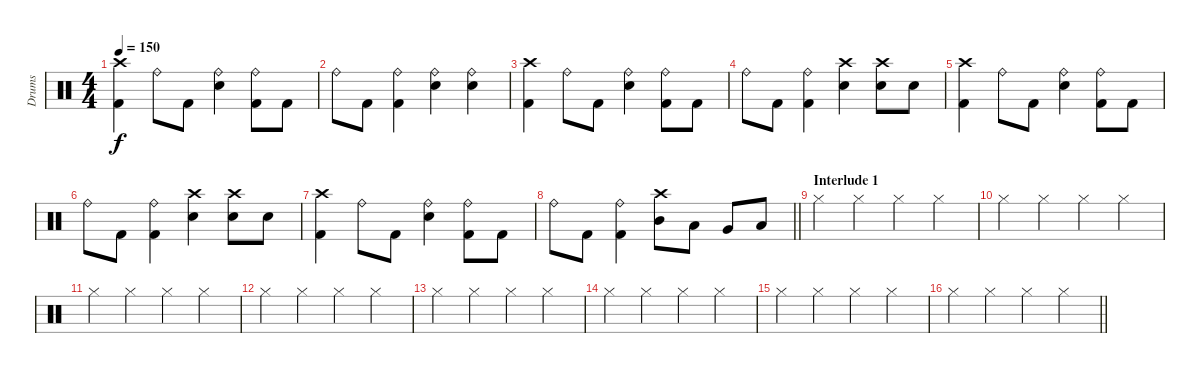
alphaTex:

\track ("Drums" "Drums") {instrument percussion}
\staff {score}
\articulation defaults
\ts (4 4)
\tempo 150
\clef neutral
\ks c
("Crash high (hit)" "Kick (hit) 2").4{dy f} "Ride (bell)".8 "Kick (hit) 2".8 ("Ride (bell)" "Electric Snare (hit)").4 ("Ride (bell)" "Kick (hit) 2").8 "Kick (hit) 2".8 |
"Ride (bell)".8 "Kick (hit) 2".8 ("Ride (bell)" "Kick (hit) 2").4 ("Ride (bell)" "Electric Snare (hit)").4 ("Ride (bell)" "Electric Snare (hit)").4 |
("Crash high (hit)" "Kick (hit) 2").4 "Ride (bell)".8 "Kick (hit) 2".8 ("Ride (bell)" "Electric Snare (hit)").4 ("Ride (bell)" "Kick (hit) 2").8 "Kick (hit) 2".8 |
"Ride (bell)".8 "Kick (hit) 2".8 ("Ride (bell)" "Kick (hit) 2").4 ("Crash high (hit)" "Electric Snare (hit)").4 ("Crash high (hit)" "Electric Snare (hit)").8 "Electric Snare (hit)".8 |
("Crash high (hit)" "Kick (hit) 2").4 "Ride (bell)".8 "Kick (hit) 2".8 ("Ride (bell)" "Electric Snare (hit)").4 ("Ride (bell)" "Kick (hit) 2").8 "Kick (hit) 2".8 |
"Ride (bell)".8 "Kick (hit) 2".8 ("Ride (bell)" "Kick (hit) 2").4 ("Crash high (hit)" "Electric Snare (hit)").4 ("Crash high (hit)" "Electric Snare (hit)").8 "Electric Snare (hit)".8 |
("Crash high (hit)" "Kick (hit) 2").4 "Ride (bell)".8 "Kick (hit) 2".8 ("Ride (bell)" "Electric Snare (hit)").4 ("Ride (bell)" "Kick (hit) 2").8 "Kick (hit) 2".8 |
\barLineRight lightlight "Ride (bell)".8 "Kick (hit) 2".8
("Ride (bell)" "Kick (hit) 2").4 ("Crash high (hit)" "Mid Tom (hit)").8 "Low Tom (hit)".8 "Very Low Tom (hit)".8 "Low Floor Tom (hit)".8 |
\section ("" "Interlude 1")
"Hi-Hat (closed)".4 "Hi-Hat (closed)".4 "Hi-Hat (closed)".4 "Hi-Hat (closed)".4 |
"Hi-Hat (closed)".4 "Hi-Hat (closed)".4 "Hi-Hat (closed)".4 "Hi-Hat (closed)".4 |
"Hi-Hat (closed)".4 "Hi-Hat (closed)".4 "Hi-Hat (closed)".4 "Hi-Hat (closed)".4 |
"Hi-Hat (closed)".4 "Hi-Hat (closed)".4 "Hi-Hat (closed)".4 "Hi-Hat (closed)".4 |
"Hi-Hat (closed)".4 "Hi-Hat (closed)".4 "Hi-Hat (closed)".4 "Hi-Hat (closed)".4 |
"Hi-Hat (closed)".4 "Hi-Hat (closed)".4 "Hi-Hat (closed)".4 "Hi-Hat (closed)".4 |
"Hi-Hat (closed)".4 "Hi-Hat (closed)".4 "Hi-Hat (closed)".4 "Hi-Hat (closed)".4 |
\barLineRight lightlight "Hi-Hat (closed)".4 "Hi-Hat (closed)".4 "Hi-Hat (closed)".4 "Hi-Hat (closed)".4
